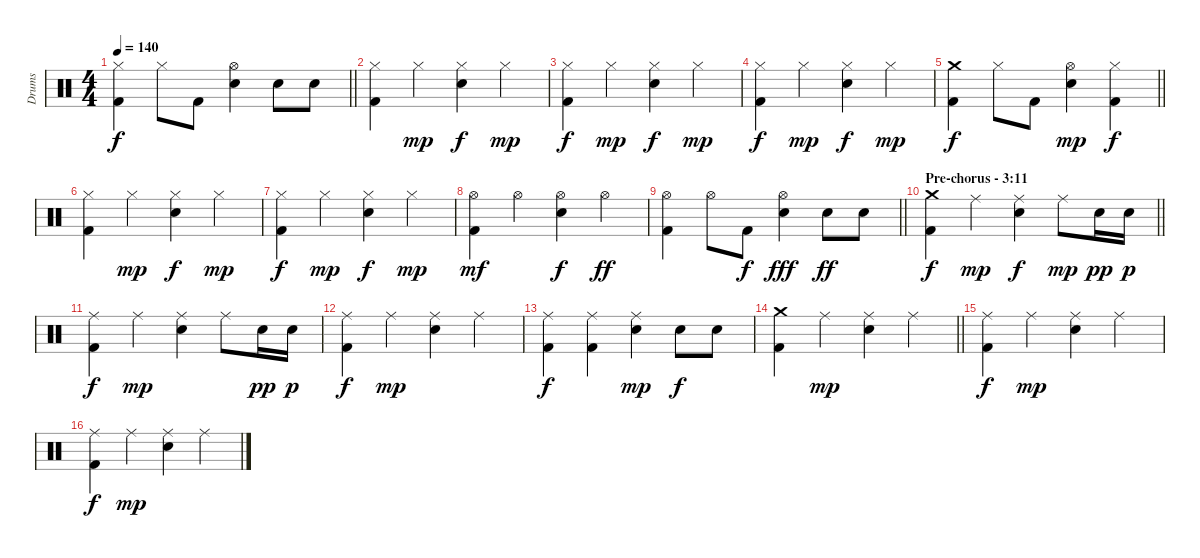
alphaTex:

\track ("Drums" "Drums") {instrument percussion}
\staff {score}
\articulation defaults
\ts (4 4)
\tempo 140
\clef neutral
\barLineRight lightlight
\ks c
("Hi-Hat (closed)" "Kick (hit) 2").4{dy f} "Hi-Hat (closed)".8 "Kick (hit) 2".8 ("Hi-Hat (open)" "Electric Snare (hit)").4 "Electric Snare (hit)".8 "Electric Snare (hit)".8 |
("Hi-Hat (closed)" "Kick (hit) 2").4 "Hi-Hat (closed)".4{dy mp} ("Hi-Hat (closed)" "Electric Snare (hit)").4{dy f} "Hi-Hat (closed)".4{dy mp} |
("Hi-Hat (closed)" "Kick (hit) 2").4{dy f} "Hi-Hat (closed)".4{dy mp} ("Hi-Hat (closed)" "Electric Snare (hit)").4{dy f} "Hi-Hat (closed)".4{dy mp} |
("Hi-Hat (closed)" "Kick (hit) 2").4{dy f} "Hi-Hat (closed)".4{dy mp} ("Hi-Hat (closed)" "Electric Snare (hit)").4{dy f} "Hi-Hat (closed)".4{dy mp} |
\barLineRight lightlight
("Crash medium (hit)" "Kick (hit) 2").4{dy f} "Hi-Hat (closed)".8 "Kick (hit) 2".8 ("Hi-Hat (open)" "Electric Snare (hit)").4{dy mp} ("Hi-Hat (closed)" "Kick (hit) 2").4{dy f} |
("Hi-Hat (closed)" "Kick (hit) 2").4 "Hi-Hat (closed)".4{dy mp} ("Hi-Hat (closed)" "Electric Snare (hit)").4{dy f} "Hi-Hat (closed)".4{dy mp} |
("Hi-Hat (closed)" "Kick (hit) 2").4{dy f} "Hi-Hat (closed)".4{dy mp} ("Hi-Hat (closed)" "Electric Snare (hit)").4{dy f} "Hi-Hat (closed)".4{dy mp} |
("Hi-Hat (open)" "Kick (hit) 2").4{dy mf} "Hi-Hat (open)".4 ("Hi-Hat (open)" "Electric Snare (hit)").4{dy f} "Hi-Hat (open)".4{dy ff} |
\barLineRight lightlight
("Hi-Hat (open)" "Kick (hit) 2").4 "Hi-Hat (open)".8 "Kick (hit) 2".8{dy f} ("Hi-Hat (open)" "Electric Snare (hit)").4{dy fff} "Electric Snare (hit)".8{dy ff} "Electric Snare (hit)".8 |
\section ("" "Pre-chorus - 3:11")
\barLineRight lightlight
("Crash medium (hit)" "Kick (hit) 2").4{dy f} "Ride (middle)".4{dy mp} ("Ride (middle)" "Electric Snare (hit)").4{dy f} "Ride (middle)".8{dy mp} "Electric Snare (hit)".16{dy pp} "Electric Snare (hit)".16{dy p} |
("Ride (middle)" "Kick (hit) 2").4{dy f} "Ride (middle)".4{dy mp} ("Ride (middle)" "Electric Snare (hit)").4 "Ride (middle)".8 "Electric Snare (hit)".16{dy pp} "Electric Snare (hit)".16{dy p} |
("Ride (middle)" "Kick (hit) 2").4{dy f} "Ride (middle)".4{dy mp} ("Ride (middle)" "Electric Snare (hit)").4 "Ride (middle)".4 |
("Ride (middle)" "Kick (hit) 2").4{dy f} ("Ride (middle)" "Kick (hit) 2").4 ("Ride (middle)" "Electric Snare (hit)").4{dy mp} "Electric Snare (hit)".8{dy f} "Electric Snare (hit)".8 |
\barLineRight lightlight
("Crash medium (hit)" "Kick (hit) 2").4 "Ride (middle)".4{dy mp} ("Ride (middle)" "Electric Snare (hit)").4 "Ride (middle)".4 |
("Ride (middle)" "Kick (hit) 2").4{dy f} "Ride (middle)".4{dy mp} ("Ride (middle)" "Electric Snare (hit)").4 "Ride (middle)".4 |
("Ride (middle)" "Kick (hit) 2").4{dy f} "Ride (middle)".4{dy mp} ("Ride (middle)" "Electric Snare (hit)").4 "Ride (middle)".4
